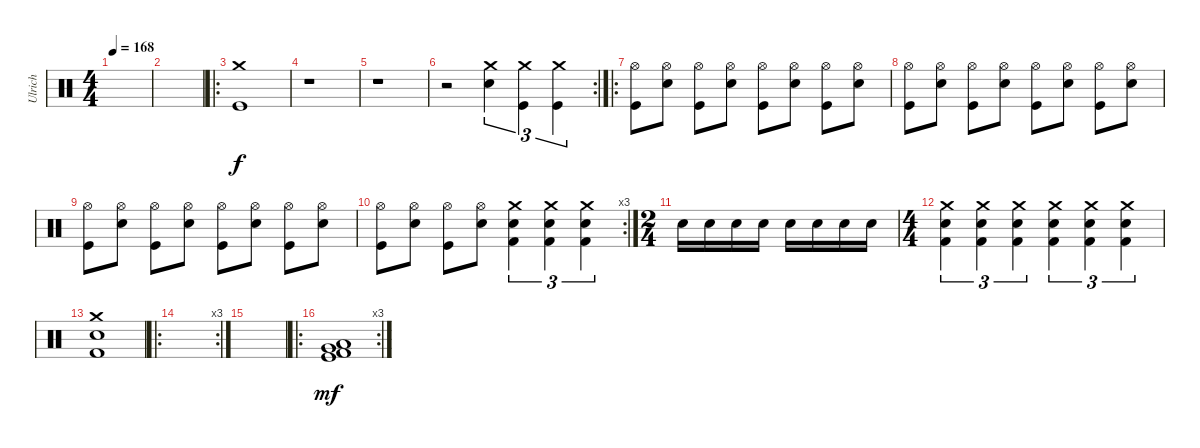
\track ("Ulrich" "Ulrich") {instrument percussion}
\staff {score}
\articulation defaults
\ts (4 4)
\tempo 168
\clef neutral
\ks c
|
|
\ro
("Crash medium (hit)" "Kick (hit)").1 |
r.1 |
r.1 |
\rc 2
r.2 ("Crash medium (hit)" "Snare (hit) 2").4{tu (3 2)} ("Crash medium (hit)" "Kick (hit)").4{tu (3 2)} ("Crash medium (hit)" "Kick (hit)").4{tu (3 2)} |
\ro
("Hi-Hat (open)" "Kick (hit)").8 ("Hi-Hat (open)" "Snare (hit) 2").8 ("Hi-Hat (open)" "Kick (hit)").8 ("Hi-Hat (open)" "Snare (hit) 2").8 ("Hi-Hat (open)" "Kick (hit)").8 ("Hi-Hat (open)" "Snare (hit) 2").8 ("Hi-Hat (open)" "Kick (hit)").8 ("Hi-Hat (open)" "Snare (hit) 2").8 |
("Hi-Hat (open)" "Kick (hit)").8 ("Hi-Hat (open)" "Snare (hit) 2").8 ("Hi-Hat (open)" "Kick (hit)").8 ("Hi-Hat (open)" "Snare (hit) 2").8 ("Hi-Hat (open)" "Kick (hit)").8 ("Hi-Hat (open)" "Snare (hit) 2").8 ("Hi-Hat (open)" "Kick (hit)").8 ("Hi-Hat (open)" "Snare (hit) 2").8 |
("Hi-Hat (open)" "Kick (hit)").8 ("Hi-Hat (open)" "Snare (hit) 2").8 ("Hi-Hat (open)" "Kick (hit)").8 ("Hi-Hat (open)" "Snare (hit) 2").8 ("Hi-Hat (open)" "Kick (hit)").8 ("Hi-Hat (open)" "Snare (hit) 2").8 ("Hi-Hat (open)" "Kick (hit)").8 ("Hi-Hat (open)" "Snare (hit) 2").8 |
\rc 3
("Hi-Hat (open)" "Kick (hit)").8 ("Hi-Hat (open)" "Snare (hit) 2").8 ("Hi-Hat (open)" "Kick (hit)").8 ("Hi-Hat (open)" "Snare (hit) 2").8 ("Crash medium (hit)" "Snare (hit) 2" "Kick (hit) 2").4{tu (3 2)} ("Crash medium (hit)" "Snare (hit) 2" "Kick (hit) 2").4{tu (3 2)} ("Crash medium (hit)" "Snare (hit) 2" "Kick (hit) 2").4{tu (3 2)} |
\ts (2 4)
"Snare (hit) 2".16 "Snare (hit) 2".16 "Snare (hit) 2".16 "Snare (hit) 2".16 "Snare (hit) 2".16 "Snare (hit) 2".16 "Snare (hit) 2".16 "Snare (hit) 2".16 |
\ts (4 4)
("Crash medium (hit)" "Snare (hit) 2" "Kick (hit) 2").4{tu (3 2)} ("Crash medium (hit)" "Snare (hit) 2" "Kick (hit) 2").4{tu (3 2)} ("Crash medium (hit)" "Snare (hit) 2" "Kick (hit) 2").4{tu (3 2)} ("Crash medium (hit)" "Snare (hit) 2" "Kick (hit) 2").4{tu (3 2)} ("Crash medium (hit)" "Snare (hit) 2" "Kick (hit) 2").4{tu (3 2)} ("Crash medium (hit)" "Snare (hit) 2" "Kick (hit) 2").4{tu (3 2)} |
("Crash medium (hit)" "Snare (hit) 2" "Kick (hit) 2").1 |
\ro
\rc 3
|
|
\ro
\rc 3
("Kick (hit)" "Very Low Tom (hit)" "Low Floor Tom (hit)" "Kick (hit) 2").1{dy mf}
